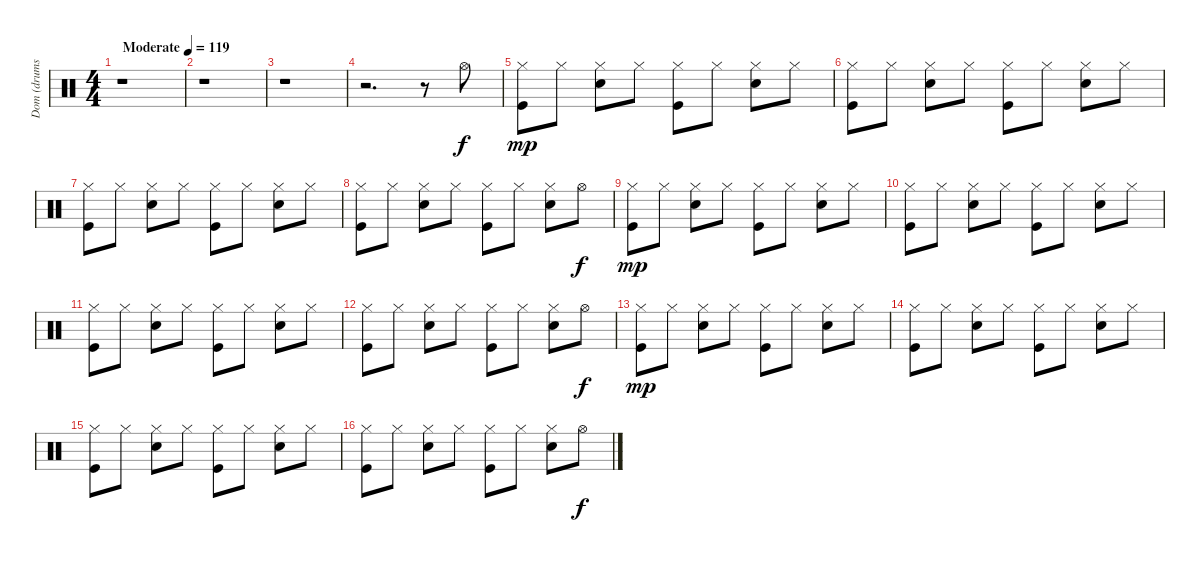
\track ("Dom (drums)" "Dom (drums") {instrument percussion}
\staff {score}
\articulation defaults
\ts (4 4)
\tempo (119 "Moderate")
\clef neutral
\ks c
r.1{dy f} |
r.1 |
r.1 |
r.2{d} r.8 "Hi-Hat (open)".8 |
("Hi-Hat (closed)" "Kick (hit)").8{dy mp} "Hi-Hat (closed)".8 ("Hi-Hat (closed)" "Snare (hit) 2").8 "Hi-Hat (closed)".8 ("Hi-Hat (closed)" "Kick (hit)").8 "Hi-Hat (closed)".8 ("Hi-Hat (closed)" "Snare (hit) 2").8 "Hi-Hat (closed)".8 |
("Hi-Hat (closed)" "Kick (hit)").8 "Hi-Hat (closed)".8 ("Hi-Hat (closed)" "Snare (hit) 2").8 "Hi-Hat (closed)".8 ("Hi-Hat (closed)" "Kick (hit)").8 "Hi-Hat (closed)".8 ("Hi-Hat (closed)" "Snare (hit) 2").8 "Hi-Hat (closed)".8 |
("Hi-Hat (closed)" "Kick (hit)").8 "Hi-Hat (closed)".8 ("Hi-Hat (closed)" "Snare (hit) 2").8 "Hi-Hat (closed)".8 ("Hi-Hat (closed)" "Kick (hit)").8 "Hi-Hat (closed)".8 ("Hi-Hat (closed)" "Snare (hit) 2").8 "Hi-Hat (closed)".8 |
("Hi-Hat (closed)" "Kick (hit)").8 "Hi-Hat (closed)".8 ("Hi-Hat (closed)" "Snare (hit) 2").8 "Hi-Hat (closed)".8 ("Hi-Hat (closed)" "Kick (hit)").8 "Hi-Hat (closed)".8 ("Hi-Hat (closed)" "Snare (hit) 2").8 "Hi-Hat (open)".8{dy f} |
("Hi-Hat (closed)" "Kick (hit)").8{dy mp} "Hi-Hat (closed)".8 ("Hi-Hat (closed)" "Snare (hit) 2").8 "Hi-Hat (closed)".8 ("Hi-Hat (closed)" "Kick (hit)").8 "Hi-Hat (closed)".8 ("Hi-Hat (closed)" "Snare (hit) 2").8 "Hi-Hat (closed)".8 |
("Hi-Hat (closed)" "Kick (hit)").8 "Hi-Hat (closed)".8 ("Hi-Hat (closed)" "Snare (hit) 2").8 "Hi-Hat (closed)".8 ("Hi-Hat (closed)" "Kick (hit)").8 "Hi-Hat (closed)".8 ("Hi-Hat (closed)" "Snare (hit) 2").8 "Hi-Hat (closed)".8 |
("Hi-Hat (closed)" "Kick (hit)").8 "Hi-Hat (closed)".8 ("Hi-Hat (closed)" "Snare (hit) 2").8 "Hi-Hat (closed)".8 ("Hi-Hat (closed)" "Kick (hit)").8 "Hi-Hat (closed)".8 ("Hi-Hat (closed)" "Snare (hit) 2").8 "Hi-Hat (closed)".8 |
("Hi-Hat (closed)" "Kick (hit)").8 "Hi-Hat (closed)".8 ("Hi-Hat (closed)" "Snare (hit) 2").8 "Hi-Hat (closed)".8 ("Hi-Hat (closed)" "Kick (hit)").8 "Hi-Hat (closed)".8 ("Hi-Hat (closed)" "Snare (hit) 2").8 "Hi-Hat (open)".8{dy f} |
("Hi-Hat (closed)" "Kick (hit)").8{dy mp} "Hi-Hat (closed)".8 ("Hi-Hat (closed)" "Snare (hit) 2").8 "Hi-Hat (closed)".8 ("Hi-Hat (closed)" "Kick (hit)").8 "Hi-Hat (closed)".8 ("Hi-Hat (closed)" "Snare (hit) 2").8 "Hi-Hat (closed)".8 |
("Hi-Hat (closed)" "Kick (hit)").8 "Hi-Hat (closed)".8 ("Hi-Hat (closed)" "Snare (hit) 2").8 "Hi-Hat (closed)".8 ("Hi-Hat (closed)" "Kick (hit)").8 "Hi-Hat (closed)".8 ("Hi-Hat (closed)" "Snare (hit) 2").8 "Hi-Hat (closed)".8 |
("Hi-Hat (closed)" "Kick (hit)").8 "Hi-Hat (closed)".8 ("Hi-Hat (closed)" "Snare (hit) 2").8 "Hi-Hat (closed)".8 ("Hi-Hat (closed)" "Kick (hit)").8 "Hi-Hat (closed)".8 ("Hi-Hat (closed)" "Snare (hit) 2").8 "Hi-Hat (closed)".8 |
("Hi-Hat (closed)" "Kick (hit)").8 "Hi-Hat (closed)".8 ("Hi-Hat (closed)" "Snare (hit) 2").8 "Hi-Hat (closed)".8 ("Hi-Hat (closed)" "Kick (hit)").8 "Hi-Hat (closed)".8 ("Hi-Hat (closed)" "Snare (hit) 2").8 "Hi-Hat (open)".8{dy f}
